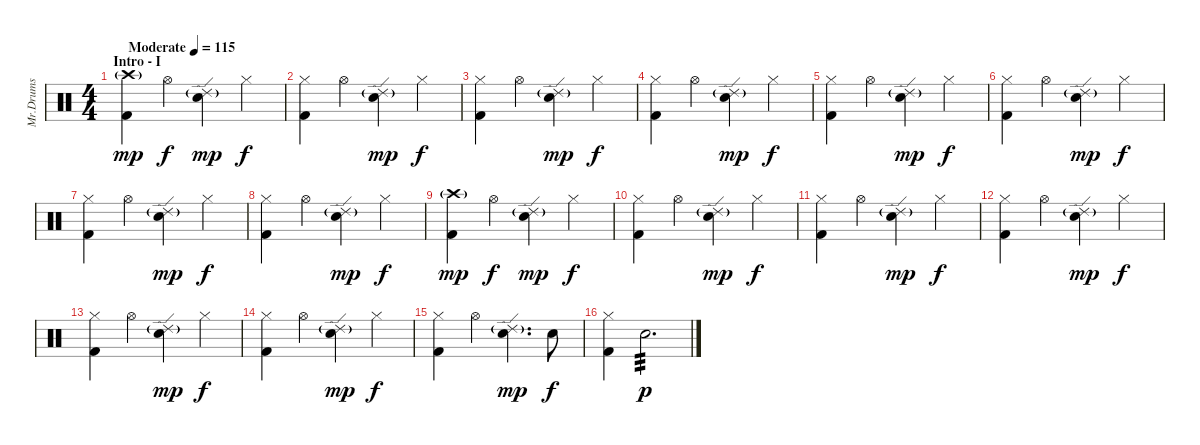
\track ("Mr.Drums" "Mr.Drums") {instrument percussion}
\staff {score}
\articulation defaults
\ts (4 4)
\section ("" "Intro - I")
\tempo (115 "Moderate")
\clef neutral
\ks c
("Crash high (hit)"{g} "Kick (hit) 2").4{dy mp} "Hi-Hat (open)".4{dy f} ("Ride (edge) 2"{g} "Electric Snare (hit)").4{dy mp} "Hi-Hat (closed)".4{dy f} |
("Hi-Hat (closed)" "Kick (hit) 2").4 "Hi-Hat (open)".4 ("Ride (edge) 2"{g} "Electric Snare (hit)").4{dy mp} "Hi-Hat (closed)".4{dy f} |
("Hi-Hat (closed)" "Kick (hit) 2").4 "Hi-Hat (open)".4 ("Ride (edge) 2"{g} "Electric Snare (hit)").4{dy mp} "Hi-Hat (closed)".4{dy f} |
("Hi-Hat (closed)" "Kick (hit) 2").4 "Hi-Hat (open)".4 ("Ride (edge) 2"{g} "Electric Snare (hit)").4{dy mp} "Hi-Hat (closed)".4{dy f} |
("Hi-Hat (closed)" "Kick (hit) 2").4 "Hi-Hat (open)".4 ("Ride (edge) 2"{g} "Electric Snare (hit)").4{dy mp} "Hi-Hat (closed)".4{dy f} |
("Hi-Hat (closed)" "Kick (hit) 2").4 "Hi-Hat (open)".4 ("Ride (edge) 2"{g} "Electric Snare (hit)").4{dy mp} "Hi-Hat (closed)".4{dy f} |
("Hi-Hat (closed)" "Kick (hit) 2").4 "Hi-Hat (open)".4 ("Ride (edge) 2"{g} "Electric Snare (hit)").4{dy mp} "Hi-Hat (closed)".4{dy f} |
("Hi-Hat (closed)" "Kick (hit) 2").4 "Hi-Hat (open)".4 ("Ride (edge) 2"{g} "Electric Snare (hit)").4{dy mp} "Hi-Hat (closed)".4{dy f} |
("Crash high (hit)"{g} "Kick (hit) 2").4{dy mp} "Hi-Hat (open)".4{dy f} ("Ride (edge) 2"{g} "Electric Snare (hit)").4{dy mp} "Hi-Hat (closed)".4{dy f} |
("Hi-Hat (closed)" "Kick (hit) 2").4 "Hi-Hat (open)".4 ("Ride (edge) 2"{g} "Electric Snare (hit)").4{dy mp} "Hi-Hat (closed)".4{dy f} |
("Hi-Hat (closed)" "Kick (hit) 2").4 "Hi-Hat (open)".4 ("Ride (edge) 2"{g} "Electric Snare (hit)").4{dy mp} "Hi-Hat (closed)".4{dy f} |
("Hi-Hat (closed)" "Kick (hit) 2").4 "Hi-Hat (open)".4 ("Ride (edge) 2"{g} "Electric Snare (hit)").4{dy mp} "Hi-Hat (closed)".4{dy f} |
("Hi-Hat (closed)" "Kick (hit) 2").4 "Hi-Hat (open)".4 ("Ride (edge) 2"{g} "Electric Snare (hit)").4{dy mp} "Hi-Hat (closed)".4{dy f} |
("Hi-Hat (closed)" "Kick (hit) 2").4 "Hi-Hat (open)".4 ("Ride (edge) 2"{g} "Electric Snare (hit)").4{dy mp} "Hi-Hat (closed)".4{dy f} |
("Hi-Hat (closed)" "Kick (hit) 2").4 "Hi-Hat (open)".4 ("Ride (edge) 2"{g} "Electric Snare (hit)").4{d dy mp} "Electric Snare (hit)".8{dy f} |
("Hi-Hat (closed)" "Kick (hit) 2").4 "Electric Snare (hit)".2{d tp 3 dy p}
